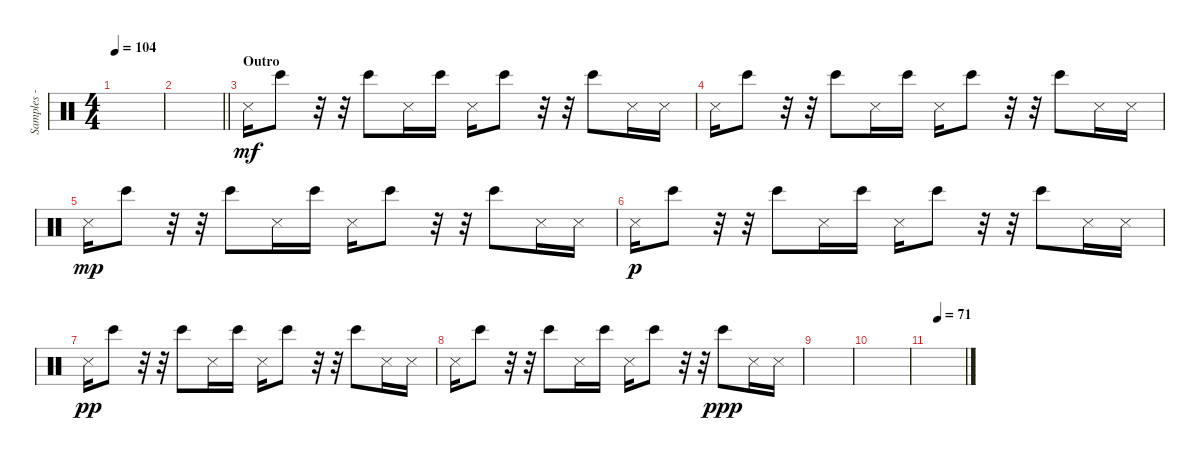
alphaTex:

\track ("Samples - Joe Hahn" "Samples - ") {instrument percussion}
\staff {score}
\articulation defaults
\ts (4 4)
\tempo 104
\clef neutral
\ks c
|
\barLineRight lightlight
|
\section ("" "Outro")
"Metronome (hit)".16{dy mf} "Bongo High (hit)".8 r.32 r.32 "Bongo High (hit)".8 "Metronome (hit)".16 "Bongo High (hit)".16 "Metronome (hit)".16 "Bongo High (hit)".8 r.32 r.32 "Bongo High (hit)".8 "Metronome (hit)".16 "Metronome (hit)".16 |
"Metronome (hit)".16 "Bongo High (hit)".8 r.32 r.32 "Bongo High (hit)".8 "Metronome (hit)".16 "Bongo High (hit)".16 "Metronome (hit)".16 "Bongo High (hit)".8 r.32 r.32 "Bongo High (hit)".8 "Metronome (hit)".16 "Metronome (hit)".16 |
"Metronome (hit)".16{dy mp} "Bongo High (hit)".8 r.32 r.32 "Bongo High (hit)".8 "Metronome (hit)".16 "Bongo High (hit)".16 "Metronome (hit)".16 "Bongo High (hit)".8 r.32 r.32 "Bongo High (hit)".8 "Metronome (hit)".16 "Metronome (hit)".16 |
"Metronome (hit)".16{dy p} "Bongo High (hit)".8 r.32 r.32 "Bongo High (hit)".8 "Metronome (hit)".16 "Bongo High (hit)".16 "Metronome (hit)".16 "Bongo High (hit)".8 r.32 r.32 "Bongo High (hit)".8 "Metronome (hit)".16 "Metronome (hit)".16 |
"Metronome (hit)".16{dy pp} "Bongo High (hit)".8 r.32 r.32 "Bongo High (hit)".8 "Metronome (hit)".16 "Bongo High (hit)".16 "Metronome (hit)".16 "Bongo High (hit)".8 r.32 r.32 "Bongo High (hit)".8 "Metronome (hit)".16 "Metronome (hit)".16 |
"Metronome (hit)".16 "Bongo High (hit)".8 r.32 r.32 "Bongo High (hit)".8 "Metronome (hit)".16 "Bongo High (hit)".16 "Metronome (hit)".16 "Bongo High (hit)".8 r.32 r.32 "Bongo High (hit)".8{dy ppp} "Metronome (hit)".16 "Metronome (hit)".16 |
|
|
\tempo (71 0.25)
